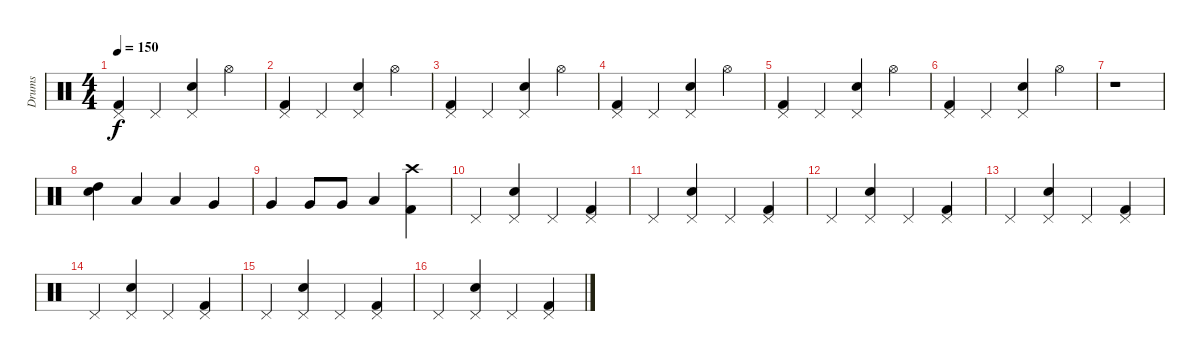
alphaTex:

\track ("Drums" "Drums") {instrument percussion}
\staff {score}
\articulation defaults
\ts (4 4)
\tempo 150
\clef neutral
\ks c
("Pedal Hi-Hat (hit)" "Kick (hit) 2").4{dy f} "Pedal Hi-Hat (hit)".4 ("Pedal Hi-Hat (hit)" "Electric Snare (hit)").4 "Hi-Hat (open)".4 |
("Pedal Hi-Hat (hit)" "Kick (hit) 2").4 "Pedal Hi-Hat (hit)".4 ("Pedal Hi-Hat (hit)" "Electric Snare (hit)").4 "Hi-Hat (open)".4 |
("Pedal Hi-Hat (hit)" "Kick (hit) 2").4 "Pedal Hi-Hat (hit)".4 ("Pedal Hi-Hat (hit)" "Electric Snare (hit)").4 "Hi-Hat (open)".4 |
("Pedal Hi-Hat (hit)" "Kick (hit) 2").4 "Pedal Hi-Hat (hit)".4 ("Pedal Hi-Hat (hit)" "Electric Snare (hit)").4 "Hi-Hat (open)".4 |
("Pedal Hi-Hat (hit)" "Kick (hit) 2").4 "Pedal Hi-Hat (hit)".4 ("Pedal Hi-Hat (hit)" "Electric Snare (hit)").4 "Hi-Hat (open)".4 |
("Pedal Hi-Hat (hit)" "Kick (hit) 2").4 "Pedal Hi-Hat (hit)".4 ("Pedal Hi-Hat (hit)" "Electric Snare (hit)").4 "Hi-Hat (open)".4 |
r.1 |
("High Tom (hit)" "Electric Snare (hit)").4 "Low Tom (hit)".4 "Low Tom (hit)".4 "Very Low Tom (hit)".4 |
"Very Low Tom (hit)".4 "Very Low Tom (hit)".8 "Very Low Tom (hit)".8 "Low Tom (hit)".4 ("Crash high (hit)" "Kick (hit) 2").4 |
"Pedal Hi-Hat (hit)".4 ("Pedal Hi-Hat (hit)" "Electric Snare (hit)").4 "Pedal Hi-Hat (hit)".4 ("Pedal Hi-Hat (hit)" "Kick (hit) 2").4 |
"Pedal Hi-Hat (hit)".4 ("Pedal Hi-Hat (hit)" "Electric Snare (hit)").4 "Pedal Hi-Hat (hit)".4 ("Pedal Hi-Hat (hit)" "Kick (hit) 2").4 |
"Pedal Hi-Hat (hit)".4 ("Pedal Hi-Hat (hit)" "Electric Snare (hit)").4 "Pedal Hi-Hat (hit)".4 ("Pedal Hi-Hat (hit)" "Kick (hit) 2").4 |
"Pedal Hi-Hat (hit)".4 ("Pedal Hi-Hat (hit)" "Electric Snare (hit)").4 "Pedal Hi-Hat (hit)".4 ("Pedal Hi-Hat (hit)" "Kick (hit) 2").4 |
"Pedal Hi-Hat (hit)".4 ("Pedal Hi-Hat (hit)" "Electric Snare (hit)").4 "Pedal Hi-Hat (hit)".4 ("Pedal Hi-Hat (hit)" "Kick (hit) 2").4 |
"Pedal Hi-Hat (hit)".4 ("Pedal Hi-Hat (hit)" "Electric Snare (hit)").4 "Pedal Hi-Hat (hit)".4 ("Pedal Hi-Hat (hit)" "Kick (hit) 2").4 |
"Pedal Hi-Hat (hit)".4 ("Pedal Hi-Hat (hit)" "Electric Snare (hit)").4 "Pedal Hi-Hat (hit)".4 ("Pedal Hi-Hat (hit)" "Kick (hit) 2").4
